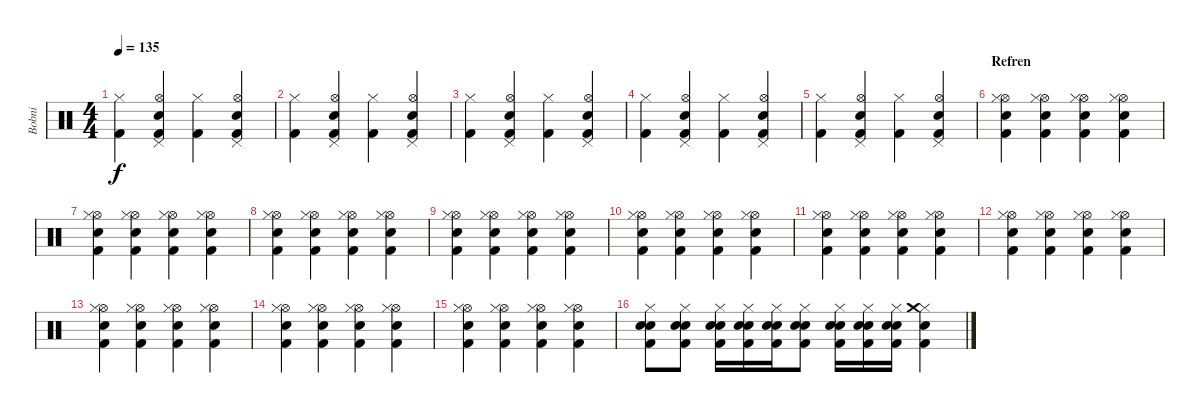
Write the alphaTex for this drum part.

\track ("Bobni" "Bobni") {instrument percussion}
\staff {score}
\articulation defaults
\ts (4 4)
\tempo 135
\clef neutral
\ks c
("Hi-Hat (closed)" "Kick (hit) 2").4{dy f} ("Hi-Hat (open)" "Snare (hit) 2" "Pedal Hi-Hat (hit)" "Kick (hit) 2").4 ("Hi-Hat (closed)" "Kick (hit) 2").4 ("Hi-Hat (open)" "Snare (hit) 2" "Pedal Hi-Hat (hit)" "Kick (hit) 2").4 |
("Hi-Hat (closed)" "Kick (hit) 2").4 ("Hi-Hat (open)" "Snare (hit) 2" "Pedal Hi-Hat (hit)" "Kick (hit) 2").4 ("Hi-Hat (closed)" "Kick (hit) 2").4 ("Hi-Hat (open)" "Snare (hit) 2" "Pedal Hi-Hat (hit)" "Kick (hit) 2").4 |
("Hi-Hat (closed)" "Kick (hit) 2").4 ("Hi-Hat (open)" "Snare (hit) 2" "Pedal Hi-Hat (hit)" "Kick (hit) 2").4 ("Hi-Hat (closed)" "Kick (hit) 2").4 ("Hi-Hat (open)" "Snare (hit) 2" "Pedal Hi-Hat (hit)" "Kick (hit) 2").4 |
("Hi-Hat (closed)" "Kick (hit) 2").4 ("Hi-Hat (open)" "Snare (hit) 2" "Pedal Hi-Hat (hit)" "Kick (hit) 2").4 ("Hi-Hat (closed)" "Kick (hit) 2").4 ("Hi-Hat (open)" "Snare (hit) 2" "Pedal Hi-Hat (hit)" "Kick (hit) 2").4 |
("Hi-Hat (closed)" "Kick (hit) 2").4 ("Hi-Hat (open)" "Snare (hit) 2" "Pedal Hi-Hat (hit)" "Kick (hit) 2").4 ("Hi-Hat (closed)" "Kick (hit) 2").4 ("Hi-Hat (open)" "Snare (hit) 2" "Pedal Hi-Hat (hit)" "Kick (hit) 2").4 |
\section ("" "Refren")
("Hi-Hat (open)" "Snare (hit) 2" "Hi-Hat (closed)" "Kick (hit) 2").4 ("Hi-Hat (open)" "Snare (hit) 2" "Hi-Hat (closed)" "Kick (hit) 2").4 ("Hi-Hat (open)" "Snare (hit) 2" "Hi-Hat (closed)" "Kick (hit) 2").4 ("Hi-Hat (open)" "Snare (hit) 2" "Hi-Hat (closed)" "Kick (hit) 2").4 |
("Hi-Hat (open)" "Snare (hit) 2" "Hi-Hat (closed)" "Kick (hit) 2").4 ("Hi-Hat (open)" "Snare (hit) 2" "Hi-Hat (closed)" "Kick (hit) 2").4 ("Hi-Hat (open)" "Snare (hit) 2" "Hi-Hat (closed)" "Kick (hit) 2").4 ("Hi-Hat (open)" "Snare (hit) 2" "Hi-Hat (closed)" "Kick (hit) 2").4 |
("Hi-Hat (open)" "Snare (hit) 2" "Hi-Hat (closed)" "Kick (hit) 2").4 ("Hi-Hat (open)" "Snare (hit) 2" "Hi-Hat (closed)" "Kick (hit) 2").4 ("Hi-Hat (open)" "Snare (hit) 2" "Hi-Hat (closed)" "Kick (hit) 2").4 ("Hi-Hat (open)" "Snare (hit) 2" "Hi-Hat (closed)" "Kick (hit) 2").4 |
("Hi-Hat (open)" "Snare (hit) 2" "Hi-Hat (closed)" "Kick (hit) 2").4 ("Hi-Hat (open)" "Snare (hit) 2" "Hi-Hat (closed)" "Kick (hit) 2").4 ("Hi-Hat (open)" "Snare (hit) 2" "Hi-Hat (closed)" "Kick (hit) 2").4 ("Hi-Hat (open)" "Snare (hit) 2" "Hi-Hat (closed)" "Kick (hit) 2").4 |
("Hi-Hat (open)" "Snare (hit) 2" "Hi-Hat (closed)" "Kick (hit) 2").4 ("Hi-Hat (open)" "Snare (hit) 2" "Hi-Hat (closed)" "Kick (hit) 2").4 ("Hi-Hat (open)" "Snare (hit) 2" "Hi-Hat (closed)" "Kick (hit) 2").4 ("Hi-Hat (open)" "Snare (hit) 2" "Hi-Hat (closed)" "Kick (hit) 2").4 |
("Hi-Hat (open)" "Snare (hit) 2" "Hi-Hat (closed)" "Kick (hit) 2").4 ("Hi-Hat (open)" "Snare (hit) 2" "Hi-Hat (closed)" "Kick (hit) 2").4 ("Hi-Hat (open)" "Snare (hit) 2" "Hi-Hat (closed)" "Kick (hit) 2").4 ("Hi-Hat (open)" "Snare (hit) 2" "Hi-Hat (closed)" "Kick (hit) 2").4 |
("Hi-Hat (open)" "Snare (hit) 2" "Hi-Hat (closed)" "Kick (hit) 2").4 ("Hi-Hat (open)" "Snare (hit) 2" "Hi-Hat (closed)" "Kick (hit) 2").4 ("Hi-Hat (open)" "Snare (hit) 2" "Hi-Hat (closed)" "Kick (hit) 2").4 ("Hi-Hat (open)" "Snare (hit) 2" "Hi-Hat (closed)" "Kick (hit) 2").4 |
("Hi-Hat (open)" "Snare (hit) 2" "Hi-Hat (closed)" "Kick (hit) 2").4 ("Hi-Hat (open)" "Snare (hit) 2" "Hi-Hat (closed)" "Kick (hit) 2").4 ("Hi-Hat (open)" "Snare (hit) 2" "Hi-Hat (closed)" "Kick (hit) 2").4 ("Hi-Hat (open)" "Snare (hit) 2" "Hi-Hat (closed)" "Kick (hit) 2").4 |
("Hi-Hat (open)" "Snare (hit) 2" "Hi-Hat (closed)" "Kick (hit) 2").4 ("Hi-Hat (open)" "Snare (hit) 2" "Hi-Hat (closed)" "Kick (hit) 2").4 ("Hi-Hat (open)" "Snare (hit) 2" "Hi-Hat (closed)" "Kick (hit) 2").4 ("Hi-Hat (open)" "Snare (hit) 2" "Hi-Hat (closed)" "Kick (hit) 2").4 |
("Hi-Hat (open)" "Snare (hit) 2" "Hi-Hat (closed)" "Kick (hit) 2").4 ("Hi-Hat (open)" "Snare (hit) 2" "Hi-Hat (closed)" "Kick (hit) 2").4 ("Hi-Hat (open)" "Snare (hit) 2" "Hi-Hat (closed)" "Kick (hit) 2").4 ("Hi-Hat (open)" "Snare (hit) 2" "Hi-Hat (closed)" "Kick (hit) 2").4 |
("Hi-Hat (closed)" "Snare (hit) 2" "Snare (hit) 2" "Kick (hit) 2").8 ("Hi-Hat (closed)" "Snare (hit) 2" "Snare (hit) 2" "Kick (hit) 2").8 ("Hi-Hat (closed)" "Snare (hit) 2" "Snare (hit) 2" "Kick (hit) 2").16 ("Hi-Hat (closed)" "Snare (hit) 2" "Snare (hit) 2" "Kick (hit) 2").16 ("Hi-Hat (closed)" "Snare (hit) 2" "Snare (hit) 2" "Kick (hit) 2").16 ("Hi-Hat (closed)" "Snare (hit) 2" "Snare (hit) 2" "Kick (hit) 2").8 ("Hi-Hat (closed)" "Snare (hit) 2" "Snare (hit) 2" "Kick (hit) 2").16 ("Hi-Hat (closed)" "Snare (hit) 2" "Snare (hit) 2" "Kick (hit) 2").16 ("Hi-Hat (closed)" "Snare (hit) 2" "Snare (hit) 2" "Kick (hit) 2").16 ("Hi-Hat (closed)" "Snare (hit) 2" "Crash medium (hit)" "Kick (hit) 2").4
